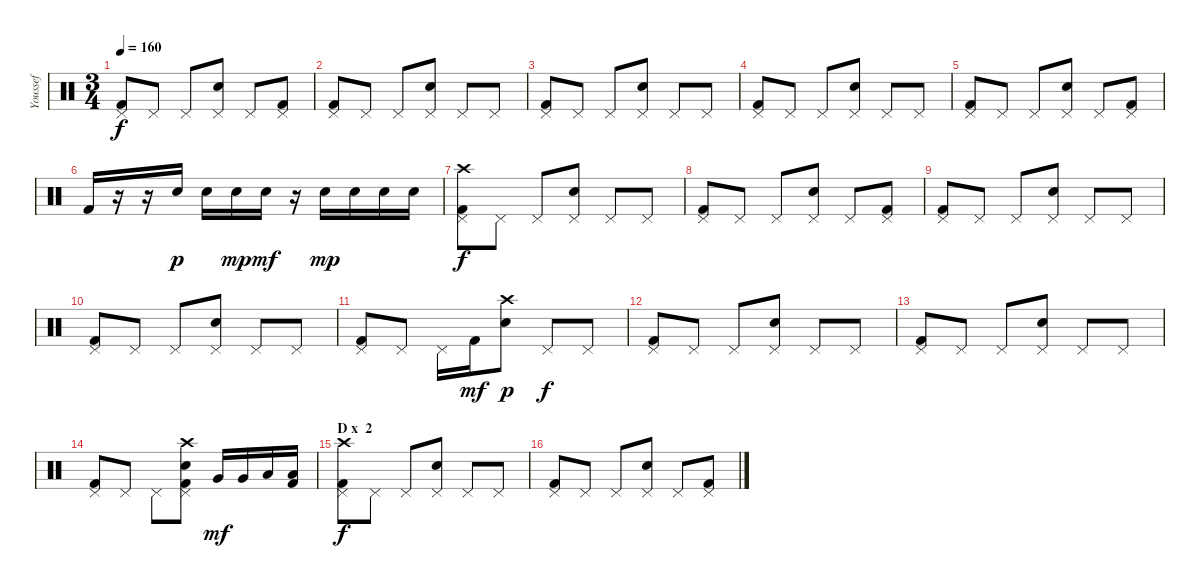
\track ("Youssef" "Youssef") {instrument percussion}
\staff {score}
\articulation defaults
\ts (3 4)
\tempo 160
\clef neutral
\ks c
("Kick (hit) 2" "Pedal Hi-Hat (hit)").8{dy f} "Pedal Hi-Hat (hit)".8 "Pedal Hi-Hat (hit)".8 ("Electric Snare (hit)" "Pedal Hi-Hat (hit)").8 "Pedal Hi-Hat (hit)".8 ("Kick (hit) 2" "Pedal Hi-Hat (hit)").8 |
("Kick (hit) 2" "Pedal Hi-Hat (hit)").8 "Pedal Hi-Hat (hit)".8 "Pedal Hi-Hat (hit)".8 ("Electric Snare (hit)" "Pedal Hi-Hat (hit)").8 "Pedal Hi-Hat (hit)".8 "Pedal Hi-Hat (hit)".8 |
("Kick (hit) 2" "Pedal Hi-Hat (hit)").8 "Pedal Hi-Hat (hit)".8 "Pedal Hi-Hat (hit)".8 ("Electric Snare (hit)" "Pedal Hi-Hat (hit)").8 "Pedal Hi-Hat (hit)".8 "Pedal Hi-Hat (hit)".8 |
("Kick (hit) 2" "Pedal Hi-Hat (hit)").8 "Pedal Hi-Hat (hit)".8 "Pedal Hi-Hat (hit)".8 ("Electric Snare (hit)" "Pedal Hi-Hat (hit)").8 "Pedal Hi-Hat (hit)".8 "Pedal Hi-Hat (hit)".8 |
("Kick (hit) 2" "Pedal Hi-Hat (hit)").8 "Pedal Hi-Hat (hit)".8 "Pedal Hi-Hat (hit)".8 ("Electric Snare (hit)" "Pedal Hi-Hat (hit)").8 "Pedal Hi-Hat (hit)".8 ("Kick (hit) 2" "Pedal Hi-Hat (hit)").8 |
"Kick (hit) 2".16 r.16 r.16 "Electric Snare (hit)".16{dy p} "Electric Snare (hit)".16 "Electric Snare (hit)".16{dy mp} "Electric Snare (hit)".16{dy mf} r.16 "Electric Snare (hit)".16{dy mp} "Electric Snare (hit)".16 "Electric Snare (hit)".16 "Electric Snare (hit)".16 |
("Kick (hit) 2" "Crash high (hit)" "Pedal Hi-Hat (hit)").8{dy f} "Pedal Hi-Hat (hit)".8 "Pedal Hi-Hat (hit)".8 ("Electric Snare (hit)" "Pedal Hi-Hat (hit)").8 "Pedal Hi-Hat (hit)".8 "Pedal Hi-Hat (hit)".8 |
("Kick (hit) 2" "Pedal Hi-Hat (hit)").8 "Pedal Hi-Hat (hit)".8 "Pedal Hi-Hat (hit)".8 ("Electric Snare (hit)" "Pedal Hi-Hat (hit)").8 "Pedal Hi-Hat (hit)".8 ("Kick (hit) 2" "Pedal Hi-Hat (hit)").8 |
("Kick (hit) 2" "Pedal Hi-Hat (hit)").8 "Pedal Hi-Hat (hit)".8 "Pedal Hi-Hat (hit)".8 ("Electric Snare (hit)" "Pedal Hi-Hat (hit)").8 "Pedal Hi-Hat (hit)".8 "Pedal Hi-Hat (hit)".8 |
("Kick (hit) 2" "Pedal Hi-Hat (hit)").8 "Pedal Hi-Hat (hit)".8 "Pedal Hi-Hat (hit)".8 ("Electric Snare (hit)" "Pedal Hi-Hat (hit)").8 "Pedal Hi-Hat (hit)".8 "Pedal Hi-Hat (hit)".8 |
("Kick (hit) 2" "Pedal Hi-Hat (hit)").8 "Pedal Hi-Hat (hit)".8 "Pedal Hi-Hat (hit)".16 "Kick (hit) 2".16{dy mf} ("Crash high (hit)" "Electric Snare (hit)").8{dy p} "Pedal Hi-Hat (hit)".8{dy f} "Pedal Hi-Hat (hit)".8 |
("Kick (hit) 2" "Pedal Hi-Hat (hit)").8 "Pedal Hi-Hat (hit)".8 "Pedal Hi-Hat (hit)".8 ("Electric Snare (hit)" "Pedal Hi-Hat (hit)").8 "Pedal Hi-Hat (hit)".8 "Pedal Hi-Hat (hit)".8 |
("Kick (hit) 2" "Pedal Hi-Hat (hit)").8 "Pedal Hi-Hat (hit)".8 "Pedal Hi-Hat (hit)".8 ("Electric Snare (hit)" "Pedal Hi-Hat (hit)").8 "Pedal Hi-Hat (hit)".8 "Pedal Hi-Hat (hit)".8 |
("Kick (hit) 2" "Pedal Hi-Hat (hit)").8 "Pedal Hi-Hat (hit)".8 "Pedal Hi-Hat (hit)".8 ("Crash high (hit)" "Kick (hit) 2" "Electric Snare (hit)" "Pedal Hi-Hat (hit)").8 "Very Low Tom (hit)".16{dy mf} "Very Low Tom (hit)".16 "Low Tom (hit)".16 ("Kick (hit) 2" "Low Tom (hit)").16 |
\section ("" "D x  2")
("Kick (hit) 2" "Crash high (hit)" "Pedal Hi-Hat (hit)").8{dy f} "Pedal Hi-Hat (hit)".8 "Pedal Hi-Hat (hit)".8 ("Electric Snare (hit)" "Pedal Hi-Hat (hit)").8 "Pedal Hi-Hat (hit)".8 "Pedal Hi-Hat (hit)".8 |
("Kick (hit) 2" "Pedal Hi-Hat (hit)").8 "Pedal Hi-Hat (hit)".8 "Pedal Hi-Hat (hit)".8 ("Electric Snare (hit)" "Pedal Hi-Hat (hit)").8 "Pedal Hi-Hat (hit)".8 ("Kick (hit) 2" "Pedal Hi-Hat (hit)").8
